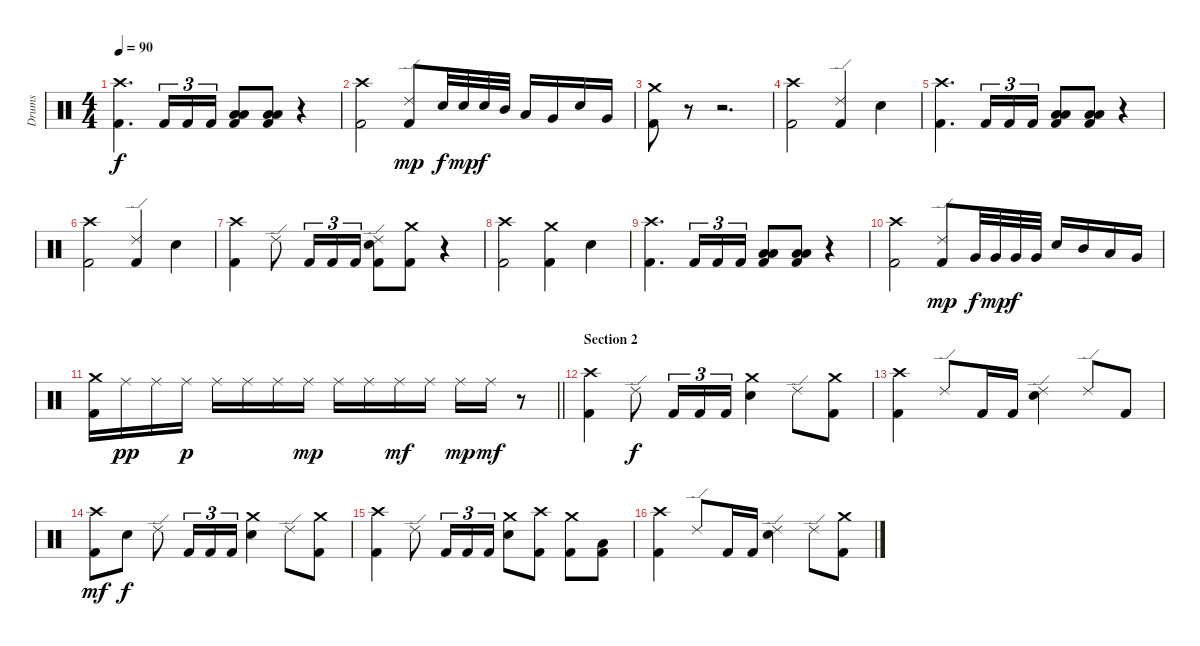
\track ("Drums" "Drums") {instrument percussion}
\staff {score}
\articulation defaults
\ts (4 4)
\tempo 90
\clef neutral
\ks c
("Crash high (hit)" "Kick (hit) 2").4{d dy f} "Kick (hit) 2".16{tu (3 2)} "Kick (hit) 2".16{tu (3 2)} "Kick (hit) 2".16{tu (3 2)} ("Low Tom (hit)" "Low Floor Tom (hit)" "Kick (hit) 2").8 ("Low Tom (hit)" "Low Floor Tom (hit)" "Kick (hit) 2").8 r.4 |
("Crash high (hit)" "Kick (hit) 2").2 ("Ride (edge) 2" "Kick (hit) 2").8{dy mp} "Electric Snare (hit)".32{dy f} "Electric Snare (hit)".32{dy mp} "Electric Snare (hit)".32{dy f} "Mid Tom (hit)".32 "Low Tom (hit)".16 "Very Low Tom (hit)".16 "Electric Snare (hit)".16 "Very Low Tom (hit)".16 |
("Crash medium (hit)" "Kick (hit) 2").8 r.8 r.2{d} |
("Crash high (hit)" "Kick (hit) 2").2 ("Ride (edge) 2" "Kick (hit) 2").4 "Electric Snare (hit)".4 |
("Crash high (hit)" "Kick (hit) 2").4{d} "Kick (hit) 2".16{tu (3 2)} "Kick (hit) 2".16{tu (3 2)} "Kick (hit) 2".16{tu (3 2)} ("Low Tom (hit)" "Low Floor Tom (hit)" "Kick (hit) 2").8 ("Low Tom (hit)" "Low Floor Tom (hit)" "Kick (hit) 2").8 r.4 |
("Crash high (hit)" "Kick (hit) 2").2 ("Ride (edge) 2" "Kick (hit) 2").4 "Electric Snare (hit)".4 |
("Crash high (hit)" "Kick (hit) 2").4 "Ride (edge) 2".8 "Kick (hit) 2".16{tu (3 2)} "Kick (hit) 2".16{tu (3 2)} "Kick (hit) 2".16{tu (3 2)} ("Ride (edge) 2" "Electric Snare (hit)" "Kick (hit) 2").8 ("Crash medium (hit)" "Kick (hit) 2").8 r.4 |
("Crash high (hit)" "Kick (hit) 2").2 ("Crash medium (hit)" "Kick (hit) 2").4 "Electric Snare (hit)".4 |
("Crash high (hit)" "Kick (hit) 2").4{d} "Kick (hit) 2".16{tu (3 2)} "Kick (hit) 2".16{tu (3 2)} "Kick (hit) 2".16{tu (3 2)} ("Low Tom (hit)" "Low Floor Tom (hit)" "Kick (hit) 2").8 ("Low Tom (hit)" "Low Floor Tom (hit)" "Kick (hit) 2").8 r.4 |
("Crash high (hit)" "Kick (hit) 2").2 ("Ride (edge) 2" "Kick (hit) 2").8{dy mp} "Very Low Tom (hit)".32{dy f} "Very Low Tom (hit)".32{dy mp} "Very Low Tom (hit)".32{dy f} "Very Low Tom (hit)".32 "Electric Snare (hit)".16 "Mid Tom (hit)".16 "Low Tom (hit)".16 "Very Low Tom (hit)".16 |
\barLineRight lightlight
("Crash medium (hit)" "Kick (hit) 2").16 "Ride (middle)".16{dy pp} "Ride (middle)".16 "Ride (middle)".16{dy p} "Ride (middle)".16 "Ride (middle)".16 "Ride (middle)".16 "Ride (middle)".16{dy mp} "Ride (middle)".16 "Ride (middle)".16 "Ride (middle)".16{dy mf} "Ride (middle)".16 "Ride (middle)".16{dy mp} "Ride (middle)".16{dy mf} r.8 |
\section ("" "Section 2")
("Crash high (hit)" "Kick (hit) 2").4 "Ride (edge) 2".8{dy f} "Kick (hit) 2".16{tu (3 2)} "Kick (hit) 2".16{tu (3 2)} "Kick (hit) 2".16{tu (3 2)} ("Crash medium (hit)" "Electric Snare (hit)").4 "Ride (edge) 2".8 ("Crash medium (hit)" "Kick (hit) 2").8 |
("Crash high (hit)" "Kick (hit) 2").4 "Ride (edge) 2".8 "Kick (hit) 2".16 "Kick (hit) 2".16 ("Ride (edge) 2" "Electric Snare (hit)").4 "Ride (edge) 2".8 "Kick (hit) 2".8 |
("Crash high (hit)" "Kick (hit) 2").8{dy mf} "Electric Snare (hit)".8{dy f} "Ride (edge) 2".8 "Kick (hit) 2".16{tu (3 2)} "Kick (hit) 2".16{tu (3 2)} "Kick (hit) 2".16{tu (3 2)} ("Crash medium (hit)" "Electric Snare (hit)").4 "Ride (edge) 2".8 ("Crash medium (hit)" "Kick (hit) 2").8 |
("Crash high (hit)" "Kick (hit) 2").4 "Ride (edge) 2".8 "Kick (hit) 2".16{tu (3 2)} "Kick (hit) 2".16{tu (3 2)} "Kick (hit) 2".16{tu (3 2)} ("Crash medium (hit)" "Electric Snare (hit)").8 ("Crash high (hit)" "Kick (hit) 2").8 ("Crash medium (hit)" "Kick (hit) 2").8 ("Low Tom (hit)" "Kick (hit) 2").8 |
("Crash high (hit)" "Kick (hit) 2").4 "Ride (edge) 2".8 "Kick (hit) 2".16 "Kick (hit) 2".16 ("Ride (edge) 2" "Electric Snare (hit)").4 "Ride (edge) 2".8 ("Crash medium (hit)" "Kick (hit) 2").8
